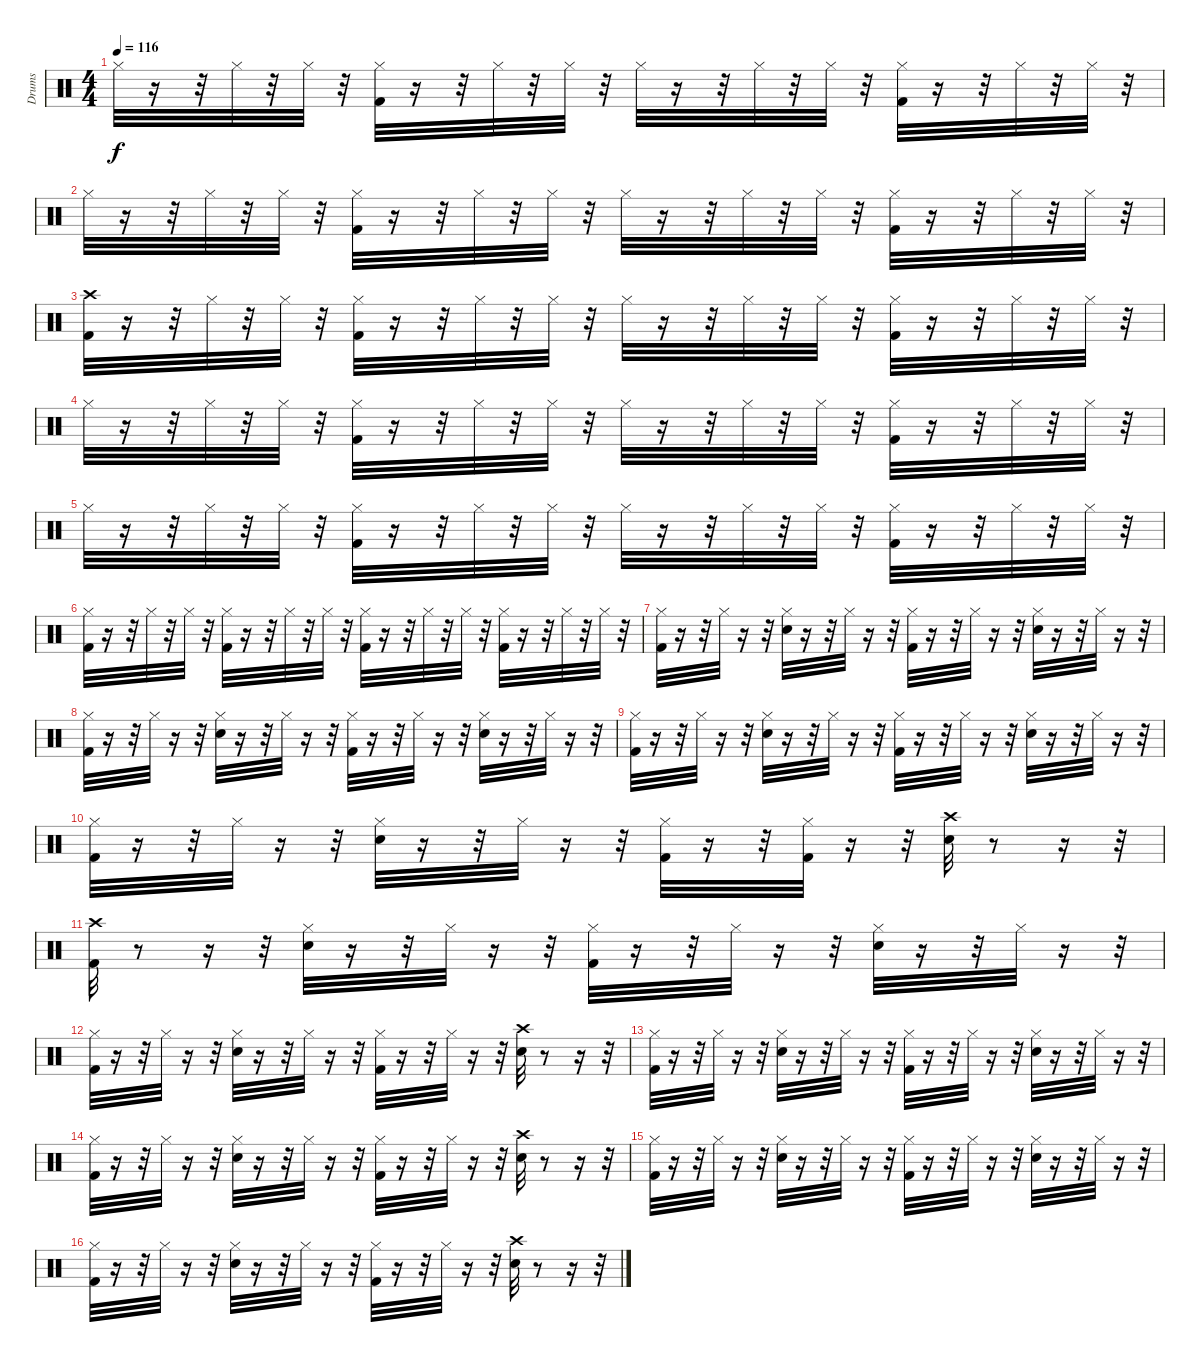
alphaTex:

\track ("Drums" "Drums") {instrument percussion}
\staff {score}
\articulation defaults
\ts (4 4)
\tempo 116
\clef neutral
\ks c "Hi-Hat (closed)".32{dy f}
r.16 r.32 "Hi-Hat (closed)".32 r.32 "Hi-Hat (closed)".32 r.32 ("Kick (hit) 2" "Hi-Hat (closed)").32 r.16 r.32 "Hi-Hat (closed)".32 r.32 "Hi-Hat (closed)".32 r.32 "Hi-Hat (closed)".32 r.16 r.32 "Hi-Hat (closed)".32 r.32 "Hi-Hat (closed)".32 r.32 ("Kick (hit) 2" "Hi-Hat (closed)").32 r.16 r.32 "Hi-Hat (closed)".32 r.32 "Hi-Hat (closed)".32 r.32 |
"Hi-Hat (closed)".32 r.16 r.32 "Hi-Hat (closed)".32 r.32 "Hi-Hat (closed)".32 r.32 ("Kick (hit) 2" "Hi-Hat (closed)").32 r.16 r.32 "Hi-Hat (closed)".32 r.32 "Hi-Hat (closed)".32 r.32 "Hi-Hat (closed)".32 r.16 r.32 "Hi-Hat (closed)".32 r.32 "Hi-Hat (closed)".32 r.32 ("Kick (hit) 2" "Hi-Hat (closed)").32 r.16 r.32 "Hi-Hat (closed)".32 r.32 "Hi-Hat (closed)".32 r.32 |
("Kick (hit) 2" "Crash high (hit)").32 r.16 r.32 "Hi-Hat (closed)".32 r.32 "Hi-Hat (closed)".32 r.32 ("Kick (hit) 2" "Hi-Hat (closed)").32 r.16 r.32 "Hi-Hat (closed)".32 r.32 "Hi-Hat (closed)".32 r.32 "Hi-Hat (closed)".32 r.16 r.32 "Hi-Hat (closed)".32 r.32 "Hi-Hat (closed)".32 r.32 ("Kick (hit) 2" "Hi-Hat (closed)").32 r.16 r.32 "Hi-Hat (closed)".32 r.32 "Hi-Hat (closed)".32 r.32 |
"Hi-Hat (closed)".32 r.16 r.32 "Hi-Hat (closed)".32 r.32 "Hi-Hat (closed)".32 r.32 ("Kick (hit) 2" "Hi-Hat (closed)").32 r.16 r.32 "Hi-Hat (closed)".32 r.32 "Hi-Hat (closed)".32 r.32 "Hi-Hat (closed)".32 r.16 r.32 "Hi-Hat (closed)".32 r.32 "Hi-Hat (closed)".32 r.32 ("Kick (hit) 2" "Hi-Hat (closed)").32 r.16 r.32 "Hi-Hat (closed)".32 r.32 "Hi-Hat (closed)".32 r.32 |
"Hi-Hat (closed)".32 r.16 r.32 "Hi-Hat (closed)".32 r.32 "Hi-Hat (closed)".32 r.32 ("Kick (hit) 2" "Hi-Hat (closed)").32 r.16 r.32 "Hi-Hat (closed)".32 r.32 "Hi-Hat (closed)".32 r.32 "Hi-Hat (closed)".32 r.16 r.32 "Hi-Hat (closed)".32 r.32 "Hi-Hat (closed)".32 r.32 ("Kick (hit) 2" "Hi-Hat (closed)").32 r.16 r.32 "Hi-Hat (closed)".32 r.32 "Hi-Hat (closed)".32 r.32 |
("Kick (hit) 2" "Hi-Hat (closed)").32 r.16 r.32 "Hi-Hat (closed)".32 r.32 "Hi-Hat (closed)".32 r.32 ("Kick (hit) 2" "Hi-Hat (closed)").32 r.16 r.32 "Hi-Hat (closed)".32 r.32 "Hi-Hat (closed)".32 r.32 ("Kick (hit) 2" "Hi-Hat (closed)").32 r.16 r.32 "Hi-Hat (closed)".32 r.32 "Hi-Hat (closed)".32 r.32 ("Kick (hit) 2" "Hi-Hat (closed)").32 r.16 r.32 "Hi-Hat (closed)".32 r.32 "Hi-Hat (closed)".32 r.32 |
("Kick (hit) 2" "Hi-Hat (closed)").32 r.16 r.32 "Hi-Hat (closed)".32 r.16 r.32 ("Snare (hit) 2" "Hi-Hat (closed)").32 r.16 r.32 "Hi-Hat (closed)".32 r.16 r.32 ("Kick (hit) 2" "Hi-Hat (closed)").32 r.16 r.32 "Hi-Hat (closed)".32 r.16 r.32 ("Snare (hit) 2" "Hi-Hat (closed)").32 r.16 r.32 "Hi-Hat (closed)".32 r.16 r.32 |
("Kick (hit) 2" "Hi-Hat (closed)").32 r.16 r.32 "Hi-Hat (closed)".32 r.16 r.32 ("Snare (hit) 2" "Hi-Hat (closed)").32 r.16 r.32 "Hi-Hat (closed)".32 r.16 r.32 ("Kick (hit) 2" "Hi-Hat (closed)").32 r.16 r.32 "Hi-Hat (closed)".32 r.16 r.32 ("Snare (hit) 2" "Hi-Hat (closed)").32 r.16 r.32 "Hi-Hat (closed)".32 r.16 r.32 |
("Kick (hit) 2" "Hi-Hat (closed)").32 r.16 r.32 "Hi-Hat (closed)".32 r.16 r.32 ("Snare (hit) 2" "Hi-Hat (closed)").32 r.16 r.32 "Hi-Hat (closed)".32 r.16 r.32 ("Kick (hit) 2" "Hi-Hat (closed)").32 r.16 r.32 "Hi-Hat (closed)".32 r.16 r.32 ("Snare (hit) 2" "Hi-Hat (closed)").32 r.16 r.32 "Hi-Hat (closed)".32 r.16 r.32 |
("Kick (hit) 2" "Hi-Hat (closed)").32 r.16 r.32 "Hi-Hat (closed)".32 r.16 r.32 ("Snare (hit) 2" "Hi-Hat (closed)").32 r.16 r.32 "Hi-Hat (closed)".32 r.16 r.32 ("Kick (hit) 2" "Hi-Hat (closed)").32 r.16 r.32 ("Kick (hit) 2" "Hi-Hat (closed)").32 r.16 r.32 ("Crash high (hit)" "Snare (hit) 2").32 r.8 r.16 r.32 |
("Kick (hit) 2" "Crash high (hit)").32 r.8 r.16 r.32 ("Hi-Hat (closed)" "Snare (hit) 2").32 r.16 r.32 "Hi-Hat (closed)".32 r.16 r.32 ("Hi-Hat (closed)" "Kick (hit) 2").32 r.16 r.32 "Hi-Hat (closed)".32 r.16 r.32 ("Snare (hit) 2" "Hi-Hat (closed)").32 r.16 r.32 "Hi-Hat (closed)".32 r.16 r.32 |
("Kick (hit) 2" "Hi-Hat (closed)").32 r.16 r.32 "Hi-Hat (closed)".32 r.16 r.32 ("Snare (hit) 2" "Hi-Hat (closed)").32 r.16 r.32 "Hi-Hat (closed)".32 r.16 r.32 ("Hi-Hat (closed)" "Kick (hit) 2").32 r.16 r.32 "Hi-Hat (closed)".32 r.16 r.32 ("Crash high (hit)" "Snare (hit) 2").32 r.8 r.16 r.32 |
("Kick (hit) 2" "Hi-Hat (closed)").32 r.16 r.32 "Hi-Hat (closed)".32 r.16 r.32 ("Snare (hit) 2" "Hi-Hat (closed)").32 r.16 r.32 "Hi-Hat (closed)".32 r.16 r.32 ("Kick (hit) 2" "Hi-Hat (closed)").32 r.16 r.32 "Hi-Hat (closed)".32 r.16 r.32 ("Snare (hit) 2" "Hi-Hat (closed)").32 r.16 r.32 "Hi-Hat (closed)".32 r.16 r.32 |
("Hi-Hat (closed)" "Kick (hit) 2").32 r.16 r.32 "Hi-Hat (closed)".32 r.16 r.32 ("Snare (hit) 2" "Hi-Hat (closed)").32 r.16 r.32 "Hi-Hat (closed)".32 r.16 r.32 ("Hi-Hat (closed)" "Kick (hit) 2").32 r.16 r.32 "Hi-Hat (closed)".32 r.16 r.32 ("Crash high (hit)" "Snare (hit) 2").32 r.8 r.16 r.32 |
("Kick (hit) 2" "Hi-Hat (closed)").32 r.16 r.32 "Hi-Hat (closed)".32 r.16 r.32 ("Snare (hit) 2" "Hi-Hat (closed)").32 r.16 r.32 "Hi-Hat (closed)".32 r.16 r.32 ("Kick (hit) 2" "Hi-Hat (closed)").32 r.16 r.32 "Hi-Hat (closed)".32 r.16 r.32 ("Snare (hit) 2" "Hi-Hat (closed)").32 r.16 r.32 "Hi-Hat (closed)".32 r.16 r.32 |
("Kick (hit) 2" "Hi-Hat (closed)").32 r.16 r.32 "Hi-Hat (closed)".32 r.16 r.32 ("Snare (hit) 2" "Hi-Hat (closed)").32 r.16 r.32 "Hi-Hat (closed)".32 r.16 r.32 ("Hi-Hat (closed)" "Kick (hit) 2").32 r.16 r.32 "Hi-Hat (closed)".32 r.16 r.32 ("Crash high (hit)" "Snare (hit) 2").32 r.8 r.16 r.32
